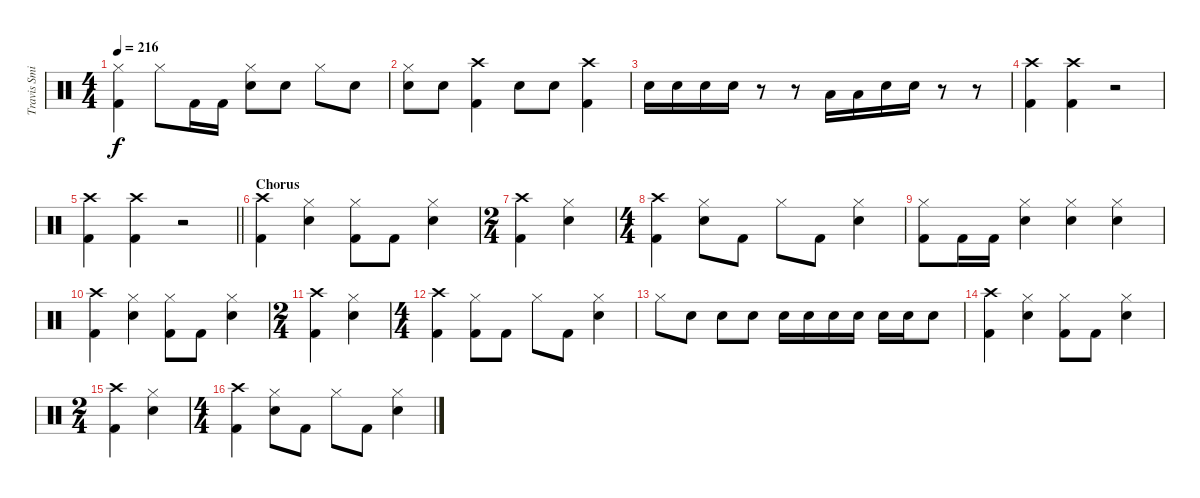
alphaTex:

\track ("Travis Smith (Drums)" "Travis Smi") {instrument percussion}
\staff {score}
\articulation defaults
\ts (4 4)
\tempo 216
\clef neutral
\ks c
("Hi-Hat (closed)" "Kick (hit) 2").4{dy f} "Hi-Hat (closed)".8 "Kick (hit) 2".16 "Kick (hit) 2".16 ("Hi-Hat (closed)" "Electric Snare (hit)").8 "Electric Snare (hit)".8 "Hi-Hat (closed)".8 "Electric Snare (hit)".8 |
("Hi-Hat (closed)" "Electric Snare (hit)").8 "Electric Snare (hit)".8 ("Crash high (hit)" "Kick (hit) 2").4 "Electric Snare (hit)".8 "Electric Snare (hit)".8 ("Crash high (hit)" "Kick (hit) 2").4 |
"Electric Snare (hit)".16 "Electric Snare (hit)".16 "Electric Snare (hit)".16 "Electric Snare (hit)".16 r.8 r.8 "Low Floor Tom (hit)".16 "Low Floor Tom (hit)".16 "Electric Snare (hit)".16 "Electric Snare (hit)".16 r.8 r.8 |
("Crash high (hit)" "Kick (hit) 2").4 ("Crash high (hit)" "Kick (hit) 2").4 r.2 |
\barLineRight lightlight
("Crash high (hit)" "Kick (hit) 2").4 ("Crash high (hit)" "Kick (hit) 2").4 r.2 |
\section ("" "Chorus")
("Crash high (hit)" "Kick (hit) 2").4 ("Hi-Hat (closed)" "Electric Snare (hit)").4 ("Hi-Hat (closed)" "Kick (hit) 2").8 "Kick (hit) 2".8 ("Hi-Hat (closed)" "Electric Snare (hit)").4 |
\ts (2 4)
("Crash high (hit)" "Kick (hit) 2").4 ("Hi-Hat (closed)" "Electric Snare (hit)").4 |
\ts (4 4)
("Crash high (hit)" "Kick (hit) 2").4 ("Hi-Hat (closed)" "Electric Snare (hit)").8 "Kick (hit) 2".8 "Hi-Hat (closed)".8 "Kick (hit) 2".8 ("Hi-Hat (closed)" "Electric Snare (hit)").4 |
("Hi-Hat (closed)" "Kick (hit) 2").8 "Kick (hit) 2".16 "Kick (hit) 2".16 ("Hi-Hat (closed)" "Electric Snare (hit)").4 ("Hi-Hat (closed)" "Electric Snare (hit)").4 ("Hi-Hat (closed)" "Electric Snare (hit)").4 |
("Crash high (hit)" "Kick (hit) 2").4 ("Hi-Hat (closed)" "Electric Snare (hit)").4 ("Hi-Hat (closed)" "Kick (hit) 2").8 "Kick (hit) 2".8 ("Hi-Hat (closed)" "Electric Snare (hit)").4 |
\ts (2 4)
("Crash high (hit)" "Kick (hit) 2").4 ("Hi-Hat (closed)" "Electric Snare (hit)").4 |
\ts (4 4)
("Crash high (hit)" "Kick (hit) 2").4 ("Hi-Hat (closed)" "Kick (hit) 2").8 "Kick (hit) 2".8 "Hi-Hat (closed)".8 "Kick (hit) 2".8 ("Hi-Hat (closed)" "Electric Snare (hit)").4 |
"Hi-Hat (closed)".8 "Electric Snare (hit)".8 "Electric Snare (hit)".8 "Electric Snare (hit)".8 "Electric Snare (hit)".16 "Electric Snare (hit)".16 "Electric Snare (hit)".16 "Electric Snare (hit)".16 "Electric Snare (hit)".16 "Electric Snare (hit)".16 "Electric Snare (hit)".8 |
("Crash high (hit)" "Kick (hit) 2").4 ("Hi-Hat (closed)" "Electric Snare (hit)").4 ("Hi-Hat (closed)" "Kick (hit) 2").8 "Kick (hit) 2".8 ("Hi-Hat (closed)" "Electric Snare (hit)").4 |
\ts (2 4)
("Crash high (hit)" "Kick (hit) 2").4 ("Hi-Hat (closed)" "Electric Snare (hit)").4 |
\ts (4 4)
("Crash high (hit)" "Kick (hit) 2").4 ("Hi-Hat (closed)" "Electric Snare (hit)").8 "Kick (hit) 2".8 "Hi-Hat (closed)".8 "Kick (hit) 2".8 ("Hi-Hat (closed)" "Electric Snare (hit)").4
